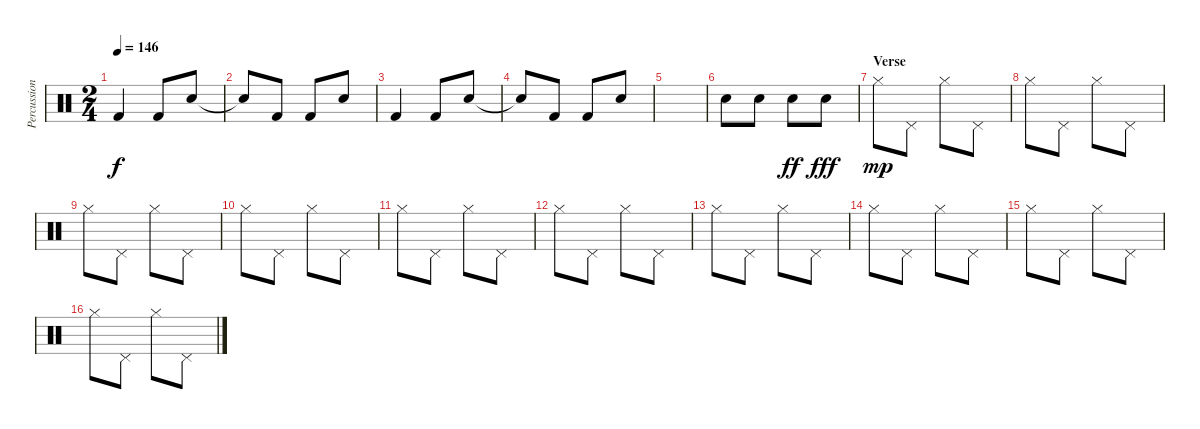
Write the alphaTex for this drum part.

\track ("Percussion" "Percussion") {instrument percussion}
\staff {score}
\articulation defaults
\ts (2 4)
\tempo 146
\clef neutral
\ks c "Kick (hit) 2".4{dy f} "Kick (hit) 2".8 "Electric Snare (hit)".8
|
"Snare (hit)"{t}.8 "Kick (hit) 2".8 "Kick (hit) 2".8 "Electric Snare (hit)".8 |
"Kick (hit) 2".4 "Kick (hit) 2".8 "Electric Snare (hit)".8 |
"Snare (hit)"{t}.8 "Kick (hit) 2".8 "Kick (hit) 2".8 "Electric Snare (hit)".8 |
|
"Electric Snare (hit)".8 "Electric Snare (hit)".8 "Electric Snare (hit)".8{dy ff} "Electric Snare (hit)".8{dy fff} |
\section ("" "Verse")
"Hi-Hat (closed)".8{dy mp} "Pedal Hi-Hat (hit)".8 "Hi-Hat (closed)".8 "Pedal Hi-Hat (hit)".8 |
"Hi-Hat (closed)".8 "Pedal Hi-Hat (hit)".8 "Hi-Hat (closed)".8 "Pedal Hi-Hat (hit)".8 |
"Hi-Hat (closed)".8 "Pedal Hi-Hat (hit)".8 "Hi-Hat (closed)".8 "Pedal Hi-Hat (hit)".8 |
"Hi-Hat (closed)".8 "Pedal Hi-Hat (hit)".8 "Hi-Hat (closed)".8 "Pedal Hi-Hat (hit)".8 |
"Hi-Hat (closed)".8 "Pedal Hi-Hat (hit)".8 "Hi-Hat (closed)".8 "Pedal Hi-Hat (hit)".8 |
"Hi-Hat (closed)".8 "Pedal Hi-Hat (hit)".8 "Hi-Hat (closed)".8 "Pedal Hi-Hat (hit)".8 |
"Hi-Hat (closed)".8 "Pedal Hi-Hat (hit)".8 "Hi-Hat (closed)".8 "Pedal Hi-Hat (hit)".8 |
"Hi-Hat (closed)".8 "Pedal Hi-Hat (hit)".8 "Hi-Hat (closed)".8 "Pedal Hi-Hat (hit)".8 |
"Hi-Hat (closed)".8 "Pedal Hi-Hat (hit)".8 "Hi-Hat (closed)".8 "Pedal Hi-Hat (hit)".8 |
"Hi-Hat (closed)".8 "Pedal Hi-Hat (hit)".8 "Hi-Hat (closed)".8 "Pedal Hi-Hat (hit)".8
